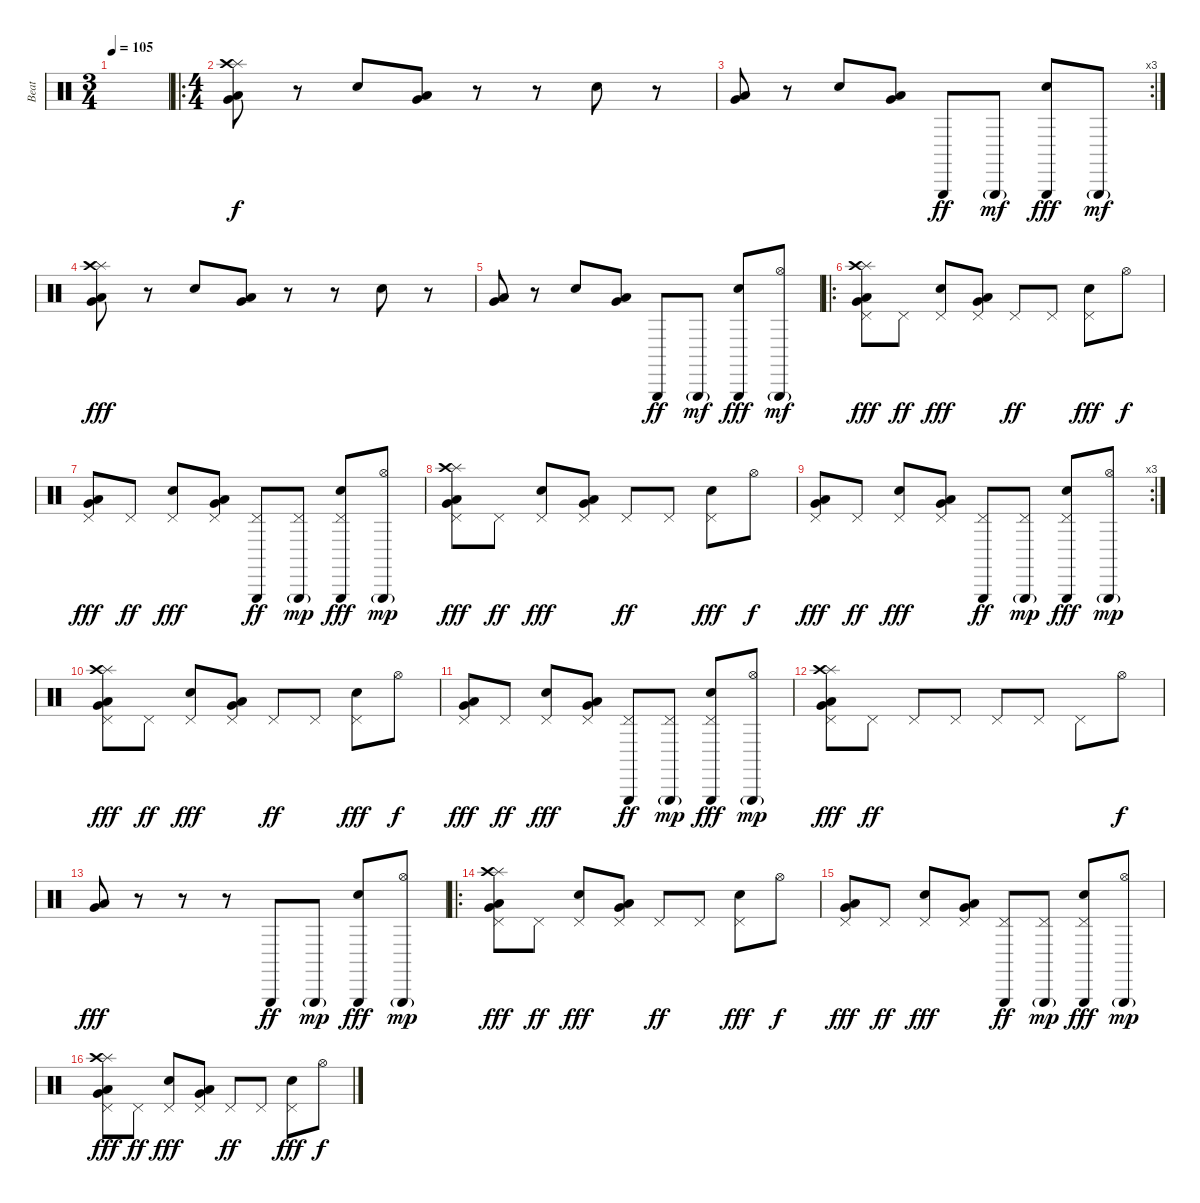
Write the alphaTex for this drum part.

\track ("Beat" "Beat") {instrument percussion}
\staff {score}
\articulation defaults
\ts (3 4)
\tempo 105
\clef neutral
\ks c
|
\ro
\ts (4 4)
("Splash (hit)" "Crash high (hit)" "Low Floor Tom (hit)" "Very Low Tom (hit)").8 r.8 "Hand Clap (hit)".8 ("Low Floor Tom (hit)" "Very Low Tom (hit)").8 r.8 r.8 "Hand Clap (hit)".8 r.8 |
\rc 3
("Low Floor Tom (hit)" "Very Low Tom (hit)").8 r.8 "Hand Clap (hit)".8 ("Low Floor Tom (hit)" "Very Low Tom (hit)").8 "Triangle (hit)".8{dy ff} "Triangle (hit)"{g}.8{dy mf} ("Triangle (hit)" "Hand Clap (hit)").8{dy fff} "Triangle (hit)"{g}.8{dy mf} |
("Splash (hit)" "Crash high (hit)" "Low Floor Tom (hit)" "Very Low Tom (hit)").8{dy fff} r.8 "Hand Clap (hit)".8 ("Low Floor Tom (hit)" "Very Low Tom (hit)").8 r.8 r.8 "Hand Clap (hit)".8 r.8 |
("Low Floor Tom (hit)" "Very Low Tom (hit)").8 r.8 "Hand Clap (hit)".8 ("Low Floor Tom (hit)" "Very Low Tom (hit)").8 "Triangle (hit)".8{dy ff} "Triangle (hit)"{g}.8{dy mf} ("Triangle (hit)" "Hand Clap (hit)").8{dy fff} ("Hi-Hat (open)" "Triangle (hit)"{g}).8{dy mf} |
\ro
("Pedal Hi-Hat (hit)" "Splash (hit)" "Crash high (hit)" "Low Floor Tom (hit)" "Very Low Tom (hit)").8{dy fff} "Pedal Hi-Hat (hit)".8{dy ff} ("Pedal Hi-Hat (hit)" "Hand Clap (hit)").8{dy fff} ("Pedal Hi-Hat (hit)" "Low Floor Tom (hit)" "Very Low Tom (hit)").8 "Pedal Hi-Hat (hit)".8{dy ff} "Pedal Hi-Hat (hit)".8 ("Pedal Hi-Hat (hit)" "Hand Clap (hit)").8{dy fff} "Hi-Hat (open)".8{dy f} |
("Pedal Hi-Hat (hit)" "Low Floor Tom (hit)" "Very Low Tom (hit)").8{dy fff} "Pedal Hi-Hat (hit)".8{dy ff} ("Pedal Hi-Hat (hit)" "Hand Clap (hit)").8{dy fff} ("Pedal Hi-Hat (hit)" "Low Floor Tom (hit)" "Very Low Tom (hit)").8 ("Pedal Hi-Hat (hit)" "Triangle (hit)").8{dy ff} ("Pedal Hi-Hat (hit)" "Triangle (hit)"{g}).8{dy mp} ("Pedal Hi-Hat (hit)" "Triangle (hit)" "Hand Clap (hit)").8{dy fff} ("Hi-Hat (open)" "Triangle (hit)"{g}).8{dy mp} |
("Pedal Hi-Hat (hit)" "Splash (hit)" "Crash high (hit)" "Low Floor Tom (hit)" "Very Low Tom (hit)").8{dy fff} "Pedal Hi-Hat (hit)".8{dy ff} ("Pedal Hi-Hat (hit)" "Hand Clap (hit)").8{dy fff} ("Pedal Hi-Hat (hit)" "Low Floor Tom (hit)" "Very Low Tom (hit)").8 "Pedal Hi-Hat (hit)".8{dy ff} "Pedal Hi-Hat (hit)".8 ("Pedal Hi-Hat (hit)" "Hand Clap (hit)").8{dy fff} "Hi-Hat (open)".8{dy f} |
\rc 3
("Pedal Hi-Hat (hit)" "Low Floor Tom (hit)" "Very Low Tom (hit)").8{dy fff} "Pedal Hi-Hat (hit)".8{dy ff} ("Pedal Hi-Hat (hit)" "Hand Clap (hit)").8{dy fff} ("Pedal Hi-Hat (hit)" "Low Floor Tom (hit)" "Very Low Tom (hit)").8 ("Pedal Hi-Hat (hit)" "Triangle (hit)").8{dy ff} ("Pedal Hi-Hat (hit)" "Triangle (hit)"{g}).8{dy mp} ("Pedal Hi-Hat (hit)" "Triangle (hit)" "Hand Clap (hit)").8{dy fff} ("Hi-Hat (open)" "Triangle (hit)"{g}).8{dy mp} |
("Pedal Hi-Hat (hit)" "Splash (hit)" "Crash high (hit)" "Low Floor Tom (hit)" "Very Low Tom (hit)").8{dy fff} "Pedal Hi-Hat (hit)".8{dy ff} ("Pedal Hi-Hat (hit)" "Hand Clap (hit)").8{dy fff} ("Pedal Hi-Hat (hit)" "Low Floor Tom (hit)" "Very Low Tom (hit)").8 "Pedal Hi-Hat (hit)".8{dy ff} "Pedal Hi-Hat (hit)".8 ("Pedal Hi-Hat (hit)" "Hand Clap (hit)").8{dy fff} "Hi-Hat (open)".8{dy f} |
("Pedal Hi-Hat (hit)" "Low Floor Tom (hit)" "Very Low Tom (hit)").8{dy fff} "Pedal Hi-Hat (hit)".8{dy ff} ("Pedal Hi-Hat (hit)" "Hand Clap (hit)").8{dy fff} ("Pedal Hi-Hat (hit)" "Low Floor Tom (hit)" "Very Low Tom (hit)").8 ("Pedal Hi-Hat (hit)" "Triangle (hit)").8{dy ff} ("Pedal Hi-Hat (hit)" "Triangle (hit)"{g}).8{dy mp} ("Pedal Hi-Hat (hit)" "Triangle (hit)" "Hand Clap (hit)").8{dy fff} ("Hi-Hat (open)" "Triangle (hit)"{g}).8{dy mp} |
("Pedal Hi-Hat (hit)" "Splash (hit)" "Crash high (hit)" "Low Floor Tom (hit)" "Very Low Tom (hit)").8{dy fff} "Pedal Hi-Hat (hit)".8{dy ff} "Pedal Hi-Hat (hit)".8 "Pedal Hi-Hat (hit)".8 "Pedal Hi-Hat (hit)".8 "Pedal Hi-Hat (hit)".8 "Pedal Hi-Hat (hit)".8 "Hi-Hat (open)".8{dy f} |
("Low Floor Tom (hit)" "Very Low Tom (hit)").8{dy fff} r.8 r.8 r.8 "Triangle (hit)".8{dy ff} "Triangle (hit)"{g}.8{dy mp} ("Triangle (hit)" "Hand Clap (hit)").8{dy fff} ("Hi-Hat (open)" "Triangle (hit)"{g}).8{dy mp} |
\ro
("Pedal Hi-Hat (hit)" "Splash (hit)" "Crash high (hit)" "Low Floor Tom (hit)" "Very Low Tom (hit)").8{dy fff} "Pedal Hi-Hat (hit)".8{dy ff} ("Pedal Hi-Hat (hit)" "Hand Clap (hit)").8{dy fff} ("Pedal Hi-Hat (hit)" "Low Floor Tom (hit)" "Very Low Tom (hit)").8 "Pedal Hi-Hat (hit)".8{dy ff} "Pedal Hi-Hat (hit)".8 ("Pedal Hi-Hat (hit)" "Hand Clap (hit)").8{dy fff} "Hi-Hat (open)".8{dy f} |
("Pedal Hi-Hat (hit)" "Low Floor Tom (hit)" "Very Low Tom (hit)").8{dy fff} "Pedal Hi-Hat (hit)".8{dy ff} ("Pedal Hi-Hat (hit)" "Hand Clap (hit)").8{dy fff} ("Pedal Hi-Hat (hit)" "Low Floor Tom (hit)" "Very Low Tom (hit)").8 ("Pedal Hi-Hat (hit)" "Triangle (hit)").8{dy ff} ("Pedal Hi-Hat (hit)" "Triangle (hit)"{g}).8{dy mp} ("Pedal Hi-Hat (hit)" "Triangle (hit)" "Hand Clap (hit)").8{dy fff} ("Hi-Hat (open)" "Triangle (hit)"{g}).8{dy mp} |
("Pedal Hi-Hat (hit)" "Splash (hit)" "Crash high (hit)" "Low Floor Tom (hit)" "Very Low Tom (hit)").8{dy fff} "Pedal Hi-Hat (hit)".8{dy ff} ("Pedal Hi-Hat (hit)" "Hand Clap (hit)").8{dy fff} ("Pedal Hi-Hat (hit)" "Low Floor Tom (hit)" "Very Low Tom (hit)").8 "Pedal Hi-Hat (hit)".8{dy ff} "Pedal Hi-Hat (hit)".8 ("Pedal Hi-Hat (hit)" "Hand Clap (hit)").8{dy fff} "Hi-Hat (open)".8{dy f}
